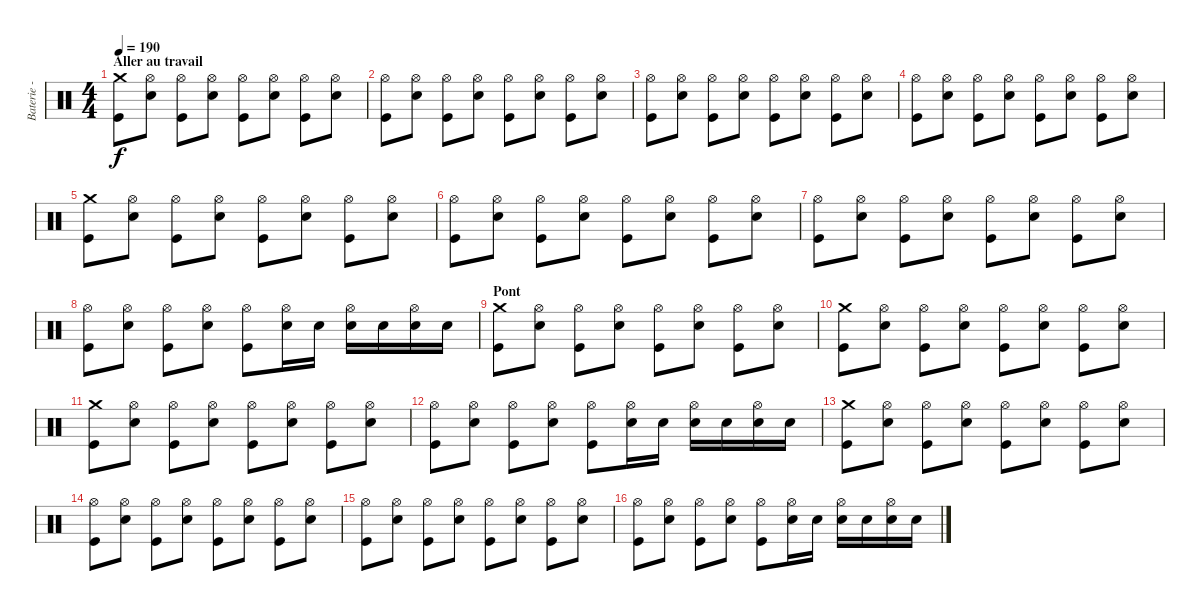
\track ("Baterie - Alex" "Baterie - ") {instrument percussion}
\staff {score}
\articulation defaults
\ts (4 4)
\section ("" "Aller au travail")
\tempo 190
\clef neutral
\ks c
("Crash medium (hit)" "Kick (hit)").8{dy f} ("Hi-Hat (open)" "Electric Snare (hit)").8 ("Hi-Hat (open)" "Kick (hit)").8 ("Hi-Hat (open)" "Electric Snare (hit)").8 ("Hi-Hat (open)" "Kick (hit)").8 ("Hi-Hat (open)" "Electric Snare (hit)").8 ("Hi-Hat (open)" "Kick (hit)").8 ("Hi-Hat (open)" "Electric Snare (hit)").8 |
("Hi-Hat (open)" "Kick (hit)").8 ("Hi-Hat (open)" "Electric Snare (hit)").8 ("Hi-Hat (open)" "Kick (hit)").8 ("Hi-Hat (open)" "Electric Snare (hit)").8 ("Hi-Hat (open)" "Kick (hit)").8 ("Hi-Hat (open)" "Electric Snare (hit)").8 ("Hi-Hat (open)" "Kick (hit)").8 ("Hi-Hat (open)" "Electric Snare (hit)").8 |
("Hi-Hat (open)" "Kick (hit)").8 ("Hi-Hat (open)" "Electric Snare (hit)").8 ("Hi-Hat (open)" "Kick (hit)").8 ("Hi-Hat (open)" "Electric Snare (hit)").8 ("Hi-Hat (open)" "Kick (hit)").8 ("Hi-Hat (open)" "Electric Snare (hit)").8 ("Hi-Hat (open)" "Kick (hit)").8 ("Hi-Hat (open)" "Electric Snare (hit)").8 |
("Hi-Hat (open)" "Kick (hit)").8 ("Hi-Hat (open)" "Electric Snare (hit)").8 ("Hi-Hat (open)" "Kick (hit)").8 ("Hi-Hat (open)" "Electric Snare (hit)").8 ("Hi-Hat (open)" "Kick (hit)").8 ("Hi-Hat (open)" "Electric Snare (hit)").8 ("Hi-Hat (open)" "Kick (hit)").8 ("Hi-Hat (open)" "Electric Snare (hit)").8 |
("Crash medium (hit)" "Kick (hit)").8 ("Hi-Hat (open)" "Electric Snare (hit)").8 ("Hi-Hat (open)" "Kick (hit)").8 ("Hi-Hat (open)" "Electric Snare (hit)").8 ("Hi-Hat (open)" "Kick (hit)").8 ("Hi-Hat (open)" "Electric Snare (hit)").8 ("Hi-Hat (open)" "Kick (hit)").8 ("Hi-Hat (open)" "Electric Snare (hit)").8 |
("Hi-Hat (open)" "Kick (hit)").8 ("Hi-Hat (open)" "Electric Snare (hit)").8 ("Hi-Hat (open)" "Kick (hit)").8 ("Hi-Hat (open)" "Electric Snare (hit)").8 ("Hi-Hat (open)" "Kick (hit)").8 ("Hi-Hat (open)" "Electric Snare (hit)").8 ("Hi-Hat (open)" "Kick (hit)").8 ("Hi-Hat (open)" "Electric Snare (hit)").8 |
("Hi-Hat (open)" "Kick (hit)").8 ("Hi-Hat (open)" "Electric Snare (hit)").8 ("Hi-Hat (open)" "Kick (hit)").8 ("Hi-Hat (open)" "Electric Snare (hit)").8 ("Hi-Hat (open)" "Kick (hit)").8 ("Hi-Hat (open)" "Electric Snare (hit)").8 ("Hi-Hat (open)" "Kick (hit)").8 ("Hi-Hat (open)" "Electric Snare (hit)").8 |
("Hi-Hat (open)" "Kick (hit)").8 ("Hi-Hat (open)" "Electric Snare (hit)").8 ("Hi-Hat (open)" "Kick (hit)").8 ("Hi-Hat (open)" "Electric Snare (hit)").8 ("Hi-Hat (open)" "Kick (hit)").8 ("Hi-Hat (open)" "Electric Snare (hit)").16 "Electric Snare (hit)".16 ("Hi-Hat (open)" "Electric Snare (hit)").16 "Electric Snare (hit)".16 ("Hi-Hat (open)" "Electric Snare (hit)").16 "Electric Snare (hit)".16 |
\section ("" "Pont")
("Crash medium (hit)" "Kick (hit)").8 ("Hi-Hat (open)" "Electric Snare (hit)").8 ("Hi-Hat (open)" "Kick (hit)").8 ("Hi-Hat (open)" "Electric Snare (hit)").8 ("Hi-Hat (open)" "Kick (hit)").8 ("Hi-Hat (open)" "Electric Snare (hit)").8 ("Hi-Hat (open)" "Kick (hit)").8 ("Hi-Hat (open)" "Electric Snare (hit)").8 |
("Crash medium (hit)" "Kick (hit)").8 ("Hi-Hat (open)" "Electric Snare (hit)").8 ("Hi-Hat (open)" "Kick (hit)").8 ("Hi-Hat (open)" "Electric Snare (hit)").8 ("Hi-Hat (open)" "Kick (hit)").8 ("Hi-Hat (open)" "Electric Snare (hit)").8 ("Hi-Hat (open)" "Kick (hit)").8 ("Hi-Hat (open)" "Electric Snare (hit)").8 |
("Crash medium (hit)" "Kick (hit)").8 ("Hi-Hat (open)" "Electric Snare (hit)").8 ("Hi-Hat (open)" "Kick (hit)").8 ("Hi-Hat (open)" "Electric Snare (hit)").8 ("Hi-Hat (open)" "Kick (hit)").8 ("Hi-Hat (open)" "Electric Snare (hit)").8 ("Hi-Hat (open)" "Kick (hit)").8 ("Hi-Hat (open)" "Electric Snare (hit)").8 |
("Hi-Hat (open)" "Kick (hit)").8 ("Hi-Hat (open)" "Electric Snare (hit)").8 ("Hi-Hat (open)" "Kick (hit)").8 ("Hi-Hat (open)" "Electric Snare (hit)").8 ("Hi-Hat (open)" "Kick (hit)").8 ("Hi-Hat (open)" "Electric Snare (hit)").16 "Electric Snare (hit)".16 ("Hi-Hat (open)" "Electric Snare (hit)").16 "Electric Snare (hit)".16 ("Hi-Hat (open)" "Electric Snare (hit)").16 "Electric Snare (hit)".16 |
("Crash medium (hit)" "Kick (hit)").8 ("Hi-Hat (open)" "Electric Snare (hit)").8 ("Hi-Hat (open)" "Kick (hit)").8 ("Hi-Hat (open)" "Electric Snare (hit)").8 ("Hi-Hat (open)" "Kick (hit)").8 ("Hi-Hat (open)" "Electric Snare (hit)").8 ("Hi-Hat (open)" "Kick (hit)").8 ("Hi-Hat (open)" "Electric Snare (hit)").8 |
("Hi-Hat (open)" "Kick (hit)").8 ("Hi-Hat (open)" "Electric Snare (hit)").8 ("Hi-Hat (open)" "Kick (hit)").8 ("Hi-Hat (open)" "Electric Snare (hit)").8 ("Hi-Hat (open)" "Kick (hit)").8 ("Hi-Hat (open)" "Electric Snare (hit)").8 ("Hi-Hat (open)" "Kick (hit)").8 ("Hi-Hat (open)" "Electric Snare (hit)").8 |
("Hi-Hat (open)" "Kick (hit)").8 ("Hi-Hat (open)" "Electric Snare (hit)").8 ("Hi-Hat (open)" "Kick (hit)").8 ("Hi-Hat (open)" "Electric Snare (hit)").8 ("Hi-Hat (open)" "Kick (hit)").8 ("Hi-Hat (open)" "Electric Snare (hit)").8 ("Hi-Hat (open)" "Kick (hit)").8 ("Hi-Hat (open)" "Electric Snare (hit)").8 |
("Hi-Hat (open)" "Kick (hit)").8 ("Hi-Hat (open)" "Electric Snare (hit)").8 ("Hi-Hat (open)" "Kick (hit)").8 ("Hi-Hat (open)" "Electric Snare (hit)").8 ("Hi-Hat (open)" "Kick (hit)").8 ("Hi-Hat (open)" "Electric Snare (hit)").16 "Electric Snare (hit)".16 ("Hi-Hat (open)" "Electric Snare (hit)").16 "Electric Snare (hit)".16 ("Hi-Hat (open)" "Electric Snare (hit)").16 "Electric Snare (hit)".16
